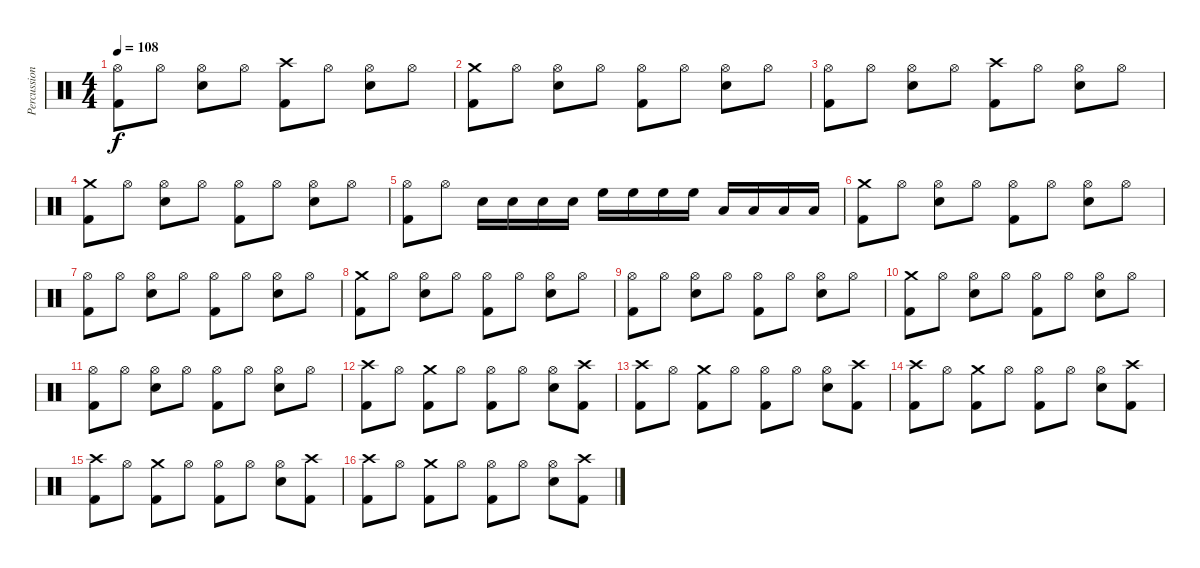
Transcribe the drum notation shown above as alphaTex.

\track ("Percussion" "Percussion") {instrument percussion}
\staff {score}
\articulation defaults
\ts (4 4)
\tempo 108
\clef neutral
\ks c
("Hi-Hat (open)" "Kick (hit) 2").8{dy f} "Hi-Hat (open)".8 ("Hi-Hat (open)" "Snare (hit) 2").8 "Hi-Hat (open)".8 ("Crash high (hit)" "Kick (hit) 2").8 "Hi-Hat (open)".8 ("Hi-Hat (open)" "Snare (hit) 2").8 "Hi-Hat (open)".8 |
("Crash medium (hit)" "Kick (hit) 2").8 "Hi-Hat (open)".8 ("Hi-Hat (open)" "Snare (hit) 2").8 "Hi-Hat (open)".8 ("Hi-Hat (open)" "Kick (hit) 2").8 "Hi-Hat (open)".8 ("Hi-Hat (open)" "Snare (hit) 2").8 "Hi-Hat (open)".8 |
("Hi-Hat (open)" "Kick (hit) 2").8 "Hi-Hat (open)".8 ("Hi-Hat (open)" "Snare (hit) 2").8 "Hi-Hat (open)".8 ("Crash high (hit)" "Kick (hit) 2").8 "Hi-Hat (open)".8 ("Hi-Hat (open)" "Snare (hit) 2").8 "Hi-Hat (open)".8 |
("Crash medium (hit)" "Kick (hit) 2").8 "Hi-Hat (open)".8 ("Hi-Hat (open)" "Snare (hit) 2").8 "Hi-Hat (open)".8 ("Hi-Hat (open)" "Kick (hit) 2").8 "Hi-Hat (open)".8 ("Hi-Hat (open)" "Snare (hit) 2").8 "Hi-Hat (open)".8 |
("Hi-Hat (open)" "Kick (hit) 2").8 "Hi-Hat (open)".8 "Snare (hit) 2".16 "Snare (hit) 2".16 "Snare (hit) 2".16 "Snare (hit) 2".16 "High Floor Tom (hit)".16 "High Floor Tom (hit)".16 "High Floor Tom (hit)".16 "High Floor Tom (hit)".16 "Low Tom (hit)".16 "Low Tom (hit)".16 "Low Tom (hit)".16 "Low Tom (hit)".16 |
("Crash medium (hit)" "Kick (hit) 2").8 "Hi-Hat (open)".8 ("Hi-Hat (open)" "Snare (hit) 2").8 "Hi-Hat (open)".8 ("Hi-Hat (open)" "Kick (hit) 2").8 "Hi-Hat (open)".8 ("Hi-Hat (open)" "Snare (hit) 2").8 "Hi-Hat (open)".8 |
("Hi-Hat (open)" "Kick (hit) 2").8 "Hi-Hat (open)".8 ("Hi-Hat (open)" "Snare (hit) 2").8 "Hi-Hat (open)".8 ("Hi-Hat (open)" "Kick (hit) 2").8 "Hi-Hat (open)".8 ("Hi-Hat (open)" "Snare (hit) 2").8 "Hi-Hat (open)".8 |
("Crash medium (hit)" "Kick (hit) 2").8 "Hi-Hat (open)".8 ("Hi-Hat (open)" "Snare (hit) 2").8 "Hi-Hat (open)".8 ("Hi-Hat (open)" "Kick (hit) 2").8 "Hi-Hat (open)".8 ("Hi-Hat (open)" "Snare (hit) 2").8 "Hi-Hat (open)".8 |
("Hi-Hat (open)" "Kick (hit) 2").8 "Hi-Hat (open)".8 ("Hi-Hat (open)" "Snare (hit) 2").8 "Hi-Hat (open)".8 ("Hi-Hat (open)" "Kick (hit) 2").8 "Hi-Hat (open)".8 ("Hi-Hat (open)" "Snare (hit) 2").8 "Hi-Hat (open)".8 |
("Crash medium (hit)" "Kick (hit) 2").8 "Hi-Hat (open)".8 ("Hi-Hat (open)" "Snare (hit) 2").8 "Hi-Hat (open)".8 ("Hi-Hat (open)" "Kick (hit) 2").8 "Hi-Hat (open)".8 ("Hi-Hat (open)" "Snare (hit) 2").8 "Hi-Hat (open)".8 |
("Hi-Hat (open)" "Kick (hit) 2").8 "Hi-Hat (open)".8 ("Hi-Hat (open)" "Snare (hit) 2").8 "Hi-Hat (open)".8 ("Hi-Hat (open)" "Kick (hit) 2").8 "Hi-Hat (open)".8 ("Hi-Hat (open)" "Snare (hit) 2").8 "Hi-Hat (open)".8 |
("Crash high (hit)" "Kick (hit) 2").8 "Hi-Hat (open)".8 ("Crash medium (hit)" "Kick (hit) 2").8 "Hi-Hat (open)".8 ("Hi-Hat (open)" "Kick (hit) 2").8 "Hi-Hat (open)".8 ("Hi-Hat (open)" "Snare (hit) 2").8 ("Crash high (hit)" "Kick (hit) 2").8 |
("Crash high (hit)" "Kick (hit) 2").8 "Hi-Hat (open)".8 ("Crash medium (hit)" "Kick (hit) 2").8 "Hi-Hat (open)".8 ("Hi-Hat (open)" "Kick (hit) 2").8 "Hi-Hat (open)".8 ("Hi-Hat (open)" "Snare (hit) 2").8 ("Crash high (hit)" "Kick (hit) 2").8 |
("Crash high (hit)" "Kick (hit) 2").8 "Hi-Hat (open)".8 ("Crash medium (hit)" "Kick (hit) 2").8 "Hi-Hat (open)".8 ("Hi-Hat (open)" "Kick (hit) 2").8 "Hi-Hat (open)".8 ("Hi-Hat (open)" "Snare (hit) 2").8 ("Crash high (hit)" "Kick (hit) 2").8 |
("Crash high (hit)" "Kick (hit) 2").8 "Hi-Hat (open)".8 ("Crash medium (hit)" "Kick (hit) 2").8 "Hi-Hat (open)".8 ("Hi-Hat (open)" "Kick (hit) 2").8 "Hi-Hat (open)".8 ("Hi-Hat (open)" "Snare (hit) 2").8 ("Crash high (hit)" "Kick (hit) 2").8 |
("Crash high (hit)" "Kick (hit) 2").8 "Hi-Hat (open)".8 ("Crash medium (hit)" "Kick (hit) 2").8 "Hi-Hat (open)".8 ("Hi-Hat (open)" "Kick (hit) 2").8 "Hi-Hat (open)".8 ("Hi-Hat (open)" "Snare (hit) 2").8 ("Crash high (hit)" "Kick (hit) 2").8
